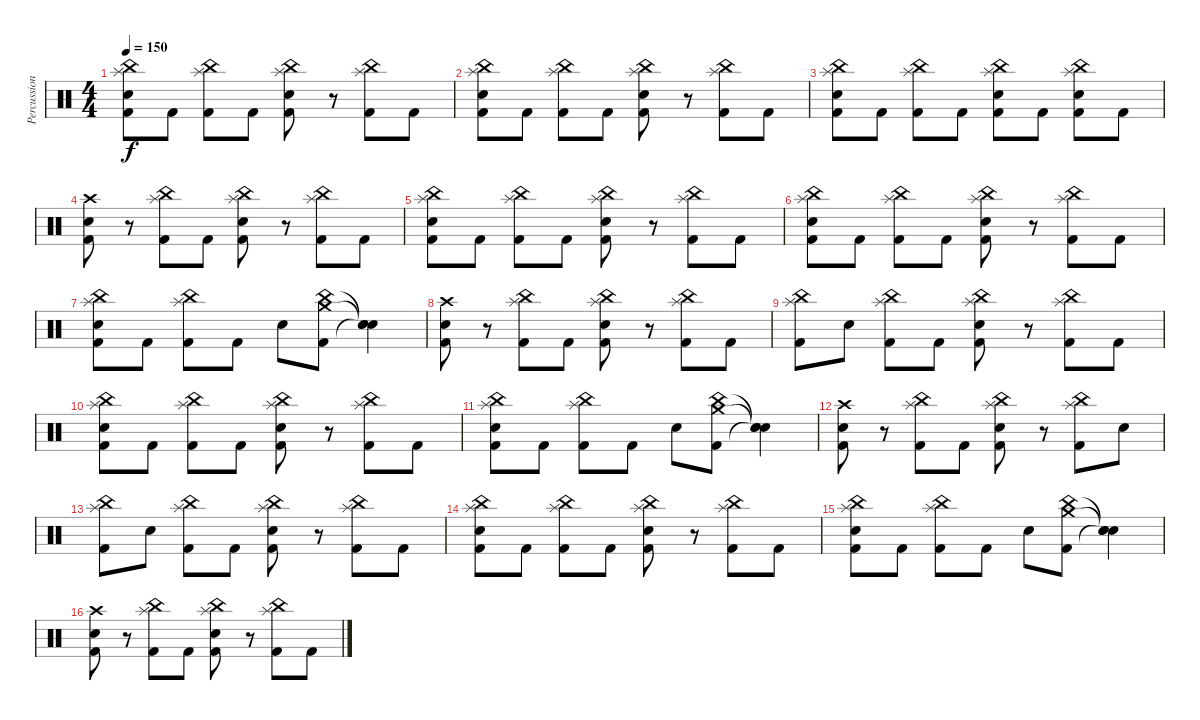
\track ("Percussion" "Percussion") {instrument percussion}
\staff {score}
\articulation defaults
\ts (4 4)
\tempo 150
\clef neutral
\ks c
("Splash (hit)" "China (hit)" "Electric Snare (hit)" "Kick (hit) 2").8{dy f} "Kick (hit) 2".8 ("Splash (hit)" "China (hit)" "Kick (hit) 2").8 "Kick (hit) 2".8 ("Splash (hit)" "China (hit)" "Electric Snare (hit)" "Kick (hit) 2").8 r.8 ("Splash (hit)" "China (hit)" "Kick (hit) 2").8 "Kick (hit) 2".8 |
("Splash (hit)" "China (hit)" "Electric Snare (hit)" "Kick (hit) 2").8 "Kick (hit) 2".8 ("Splash (hit)" "China (hit)" "Kick (hit) 2").8 "Kick (hit) 2".8 ("Splash (hit)" "China (hit)" "Electric Snare (hit)" "Kick (hit) 2").8 r.8 ("Splash (hit)" "China (hit)" "Kick (hit) 2").8 "Kick (hit) 2".8 |
("Splash (hit)" "China (hit)" "Electric Snare (hit)" "Kick (hit) 2").8 "Kick (hit) 2".8 ("Splash (hit)" "China (hit)" "Kick (hit) 2").8 "Kick (hit) 2".8 ("Splash (hit)" "China (hit)" "Electric Snare (hit)" "Kick (hit) 2").8 "Kick (hit) 2".8 ("Splash (hit)" "China (hit)" "Electric Snare (hit)" "Kick (hit) 2").8 "Kick (hit) 2".8 |
("Crash high (hit)" "Electric Snare (hit)" "Kick (hit) 2").8 r.8 ("Splash (hit)" "China (hit)" "Kick (hit) 2").8 "Kick (hit) 2".8 ("Splash (hit)" "China (hit)" "Electric Snare (hit)" "Kick (hit) 2").8 r.8 ("Splash (hit)" "China (hit)" "Kick (hit) 2").8 "Kick (hit) 2".8 |
("Splash (hit)" "China (hit)" "Electric Snare (hit)" "Kick (hit) 2").8 "Kick (hit) 2".8 ("Splash (hit)" "China (hit)" "Kick (hit) 2").8 "Kick (hit) 2".8 ("Splash (hit)" "China (hit)" "Electric Snare (hit)" "Kick (hit) 2").8 r.8 ("Splash (hit)" "China (hit)" "Kick (hit) 2").8 "Kick (hit) 2".8 |
("Splash (hit)" "China (hit)" "Electric Snare (hit)" "Kick (hit) 2").8 "Kick (hit) 2".8 ("Splash (hit)" "China (hit)" "Kick (hit) 2").8 "Kick (hit) 2".8 ("Splash (hit)" "China (hit)" "Electric Snare (hit)" "Kick (hit) 2").8 r.8 ("Splash (hit)" "China (hit)" "Kick (hit) 2").8 "Kick (hit) 2".8 |
("Splash (hit)" "China (hit)" "Electric Snare (hit)" "Kick (hit) 2").8 "Kick (hit) 2".8 ("Splash (hit)" "China (hit)" "Kick (hit) 2").8 "Kick (hit) 2".8 "Electric Snare (hit)".8 ("China (hit)" "Crash medium (hit)" "Kick (hit) 2").8 ("Snare (hit)"{t} "Snare (hit)"{t} "Snare (hit)"{t}).4 |
("Crash high (hit)" "Electric Snare (hit)" "Kick (hit) 2").8 r.8 ("Splash (hit)" "China (hit)" "Kick (hit) 2").8 "Kick (hit) 2".8 ("Splash (hit)" "China (hit)" "Electric Snare (hit)" "Kick (hit) 2").8 r.8 ("Splash (hit)" "China (hit)" "Kick (hit) 2").8 "Kick (hit) 2".8 |
("Splash (hit)" "China (hit)" "Kick (hit) 2").8 "Electric Snare (hit)".8 ("Splash (hit)" "China (hit)" "Kick (hit) 2").8 "Kick (hit) 2".8 ("Splash (hit)" "China (hit)" "Electric Snare (hit)" "Kick (hit) 2").8 r.8 ("Splash (hit)" "China (hit)" "Kick (hit) 2").8 "Kick (hit) 2".8 |
("Splash (hit)" "China (hit)" "Electric Snare (hit)" "Kick (hit) 2").8 "Kick (hit) 2".8 ("Splash (hit)" "China (hit)" "Kick (hit) 2").8 "Kick (hit) 2".8 ("Splash (hit)" "China (hit)" "Electric Snare (hit)" "Kick (hit) 2").8 r.8 ("Splash (hit)" "China (hit)" "Kick (hit) 2").8 "Kick (hit) 2".8 |
("Splash (hit)" "China (hit)" "Electric Snare (hit)" "Kick (hit) 2").8 "Kick (hit) 2".8 ("Splash (hit)" "China (hit)" "Kick (hit) 2").8 "Kick (hit) 2".8 "Electric Snare (hit)".8 ("China (hit)" "Crash medium (hit)" "Kick (hit) 2").8 ("Snare (hit)"{t} "Snare (hit)"{t} "Snare (hit)"{t}).4 |
("Crash high (hit)" "Electric Snare (hit)" "Kick (hit) 2").8 r.8 ("Splash (hit)" "China (hit)" "Kick (hit) 2").8 "Kick (hit) 2".8 ("Splash (hit)" "China (hit)" "Electric Snare (hit)" "Kick (hit) 2").8 r.8 ("Splash (hit)" "China (hit)" "Kick (hit) 2").8 "Electric Snare (hit)".8 |
("Splash (hit)" "China (hit)" "Kick (hit) 2").8 "Electric Snare (hit)".8 ("Splash (hit)" "China (hit)" "Kick (hit) 2").8 "Kick (hit) 2".8 ("Splash (hit)" "China (hit)" "Electric Snare (hit)" "Kick (hit) 2").8 r.8 ("Splash (hit)" "China (hit)" "Kick (hit) 2").8 "Kick (hit) 2".8 |
("Splash (hit)" "China (hit)" "Electric Snare (hit)" "Kick (hit) 2").8 "Kick (hit) 2".8 ("Splash (hit)" "China (hit)" "Kick (hit) 2").8 "Kick (hit) 2".8 ("Splash (hit)" "China (hit)" "Electric Snare (hit)" "Kick (hit) 2").8 r.8 ("Splash (hit)" "China (hit)" "Kick (hit) 2").8 "Kick (hit) 2".8 |
("Splash (hit)" "China (hit)" "Electric Snare (hit)" "Kick (hit) 2").8 "Kick (hit) 2".8 ("Splash (hit)" "China (hit)" "Kick (hit) 2").8 "Kick (hit) 2".8 "Electric Snare (hit)".8 ("China (hit)" "Crash medium (hit)" "Kick (hit) 2").8 ("Snare (hit)"{t} "Snare (hit)"{t} "Snare (hit)"{t}).4 |
("Crash high (hit)" "Electric Snare (hit)" "Kick (hit) 2").8 r.8 ("Splash (hit)" "China (hit)" "Kick (hit) 2").8 "Kick (hit) 2".8 ("Splash (hit)" "China (hit)" "Electric Snare (hit)" "Kick (hit) 2").8 r.8 ("Splash (hit)" "China (hit)" "Kick (hit) 2").8 "Kick (hit) 2".8
